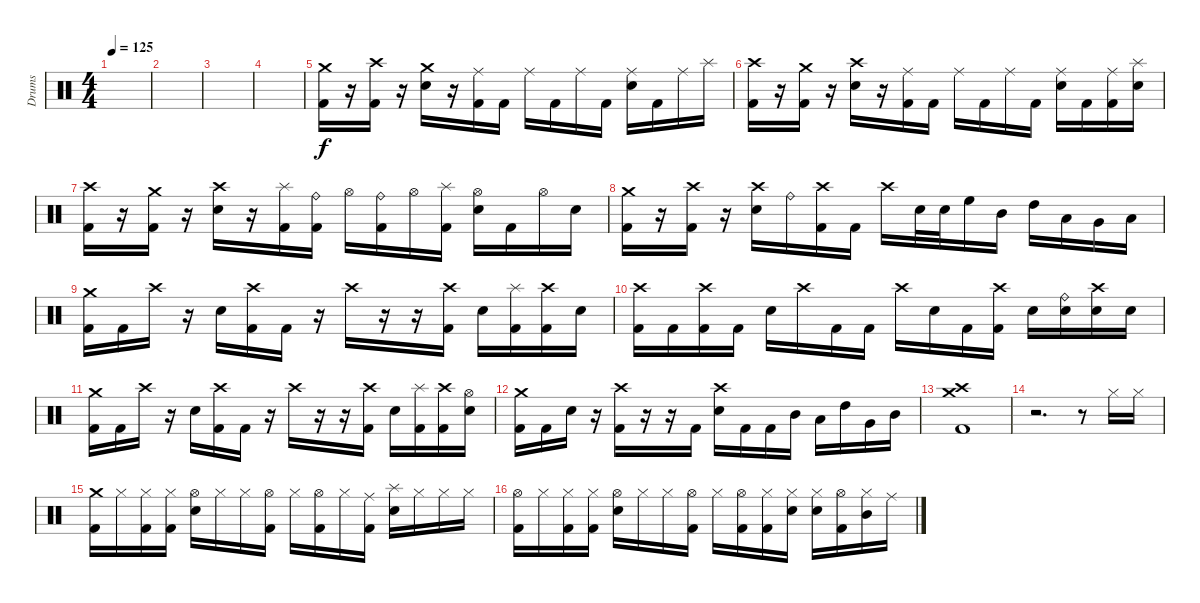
\track ("Drums" "Drums") {instrument percussion}
\staff {score}
\articulation defaults
\ts (4 4)
\tempo 125
\clef neutral
\ks c
|
|
|
|
("Crash medium (hit)" "Kick (hit) 2").16 r.16 ("Crash high (hit)" "Kick (hit) 2").16 r.16 ("Crash medium (hit)" "Electric Snare (hit)").16 r.16 ("Ride (middle)" "Kick (hit) 2").16 "Kick (hit) 2".16 "Ride (middle)".16 "Kick (hit) 2".16 "Ride (middle)".16 "Kick (hit) 2".16 ("Ride (middle)" "Electric Snare (hit)").16 "Kick (hit) 2".16 "Ride (middle)".16 "Splash (hit)".16 |
("Crash high (hit)" "Kick (hit) 2").16 r.16 ("Crash medium (hit)" "Kick (hit) 2").16 r.16 ("Crash high (hit)" "Electric Snare (hit)").16 r.16 ("Ride (middle)" "Kick (hit) 2").16 "Kick (hit) 2".16 "Ride (middle)".16 "Kick (hit) 2".16 "Ride (middle)".16 "Kick (hit) 2".16 ("Ride (middle)" "Electric Snare (hit)").16 "Kick (hit) 2".16 ("Ride (middle)" "Kick (hit) 2").16 ("Splash (hit)" "Electric Snare (hit)").16 |
("Crash high (hit)" "Kick (hit) 2").16 r.16 ("Crash medium (hit)" "Kick (hit) 2").16 r.16 ("Crash high (hit)" "Electric Snare (hit)").16 r.16 ("Splash (hit)" "Kick (hit) 2").16 ("Ride (bell)" "Kick (hit) 2").16 "Hi-Hat (open)".16 ("Ride (bell)" "Kick (hit) 2").16 "Hi-Hat (open)".16 ("Splash (hit)" "Kick (hit) 2").16 ("Hi-Hat (open)" "Electric Snare (hit)").16 "Kick (hit) 2".16 "Hi-Hat (open)".16 "Electric Snare (hit)".16 |
("Crash medium (hit)" "Kick (hit) 2").16 r.16 ("Crash high (hit)" "Kick (hit) 2").16 r.16 ("Crash high (hit)" "Electric Snare (hit)").16 "Ride (bell)".16 ("Crash high (hit)" "Kick (hit) 2").16 "Kick (hit) 2".16 "Crash high (hit)".16 "Electric Snare (hit)".32 "Electric Snare (hit)".32 "High Floor Tom (hit)".16 "Mid Tom (hit)".16 "High Tom (hit)".16 "Low Tom (hit)".16 "Very Low Tom (hit)".16 "Low Floor Tom (hit)".16 |
("Crash medium (hit)" "Kick (hit) 2").16 "Kick (hit) 2".16 "Crash high (hit)".16 r.16 "Electric Snare (hit)".16 ("Crash high (hit)" "Kick (hit) 2").16 "Kick (hit) 2".16 r.16 "Crash high (hit)".16 r.16 r.16 ("Crash high (hit)" "Kick (hit) 2").16 "Electric Snare (hit)".16 ("Splash (hit)" "Kick (hit) 2").16 ("Crash high (hit)" "Kick (hit) 2").16 "Electric Snare (hit)".16 |
("Crash high (hit)" "Kick (hit) 2").16 "Kick (hit) 2".16 ("Crash high (hit)" "Kick (hit) 2").16 "Kick (hit) 2".16 "Electric Snare (hit)".16 "Crash high (hit)".16 "Kick (hit) 2".16 "Kick (hit) 2".16 "Crash high (hit)".16 "Electric Snare (hit)".16 "Kick (hit) 2".16 ("Crash high (hit)" "Kick (hit) 2").16 "Electric Snare (hit)".16 ("Ride (bell)" "Electric Snare (hit)").16 ("Crash high (hit)" "Electric Snare (hit)").16 "Electric Snare (hit)".16 |
("Crash medium (hit)" "Kick (hit) 2").16 "Kick (hit) 2".16 "Crash high (hit)".16 r.16 "Electric Snare (hit)".16 ("Crash high (hit)" "Kick (hit) 2").16 "Kick (hit) 2".16 r.16 "Crash high (hit)".16 r.16 r.16 ("Crash high (hit)" "Kick (hit) 2").16 "Electric Snare (hit)".16 ("Splash (hit)" "Kick (hit) 2").16 ("Crash high (hit)" "Kick (hit) 2").16 ("Hi-Hat (open)" "Electric Snare (hit)").16 |
("Crash medium (hit)" "Kick (hit) 2").16 "Kick (hit) 2".16 "Electric Snare (hit)".16 r.16 ("Crash high (hit)" "Kick (hit) 2").16 r.16 r.16 "Kick (hit) 2".16 ("Crash high (hit)" "Electric Snare (hit)").16 "Kick (hit) 2".16 "Kick (hit) 2".16 "Mid Tom (hit)".16 "Low Tom (hit)".16 "High Tom (hit)".16 "Very Low Tom (hit)".16 "Mid Tom (hit)".16 |
("Crash medium (hit)" "Crash high (hit)" "Kick (hit) 2").1 |
r.2{d} r.8 "Hi-Hat (closed)".16 "Hi-Hat (closed)".16 |
("Crash medium (hit)" "Kick (hit) 2").16 "Hi-Hat (closed)".16 ("Hi-Hat (closed)" "Kick (hit) 2").16 ("Hi-Hat (closed)" "Kick (hit) 2").16 ("Hi-Hat (open)" "Electric Snare (hit)").16 "Hi-Hat (closed)".16 "Hi-Hat (closed)".16 ("Hi-Hat (open)" "Kick (hit) 2").16 "Hi-Hat (closed)".16 ("Hi-Hat (open)" "Kick (hit) 2").16 "Hi-Hat (closed)".16 ("Ride (middle)" "Kick (hit) 2").16 ("Splash (hit)" "Electric Snare (hit)").16 "Hi-Hat (closed)".16 "Hi-Hat (closed)".16 "Hi-Hat (closed)".16 |
("Hi-Hat (open)" "Kick (hit) 2").16 "Hi-Hat (closed)".16 ("Hi-Hat (closed)" "Kick (hit) 2").16 ("Hi-Hat (closed)" "Kick (hit) 2").16 ("Hi-Hat (open)" "Electric Snare (hit)").16 "Hi-Hat (closed)".16 "Hi-Hat (closed)".16 ("Hi-Hat (open)" "Kick (hit) 2").16 "Hi-Hat (closed)".16 ("Hi-Hat (open)" "Kick (hit) 2").16 ("Hi-Hat (closed)" "Kick (hit) 2").16 ("Hi-Hat (closed)" "Electric Snare (hit)").16 ("Hi-Hat (closed)" "Electric Snare (hit)").16 ("Hi-Hat (open)" "Kick (hit) 2").16 ("Hi-Hat (closed)" "Mid Tom (hit)").16 "Ride (middle)".16
